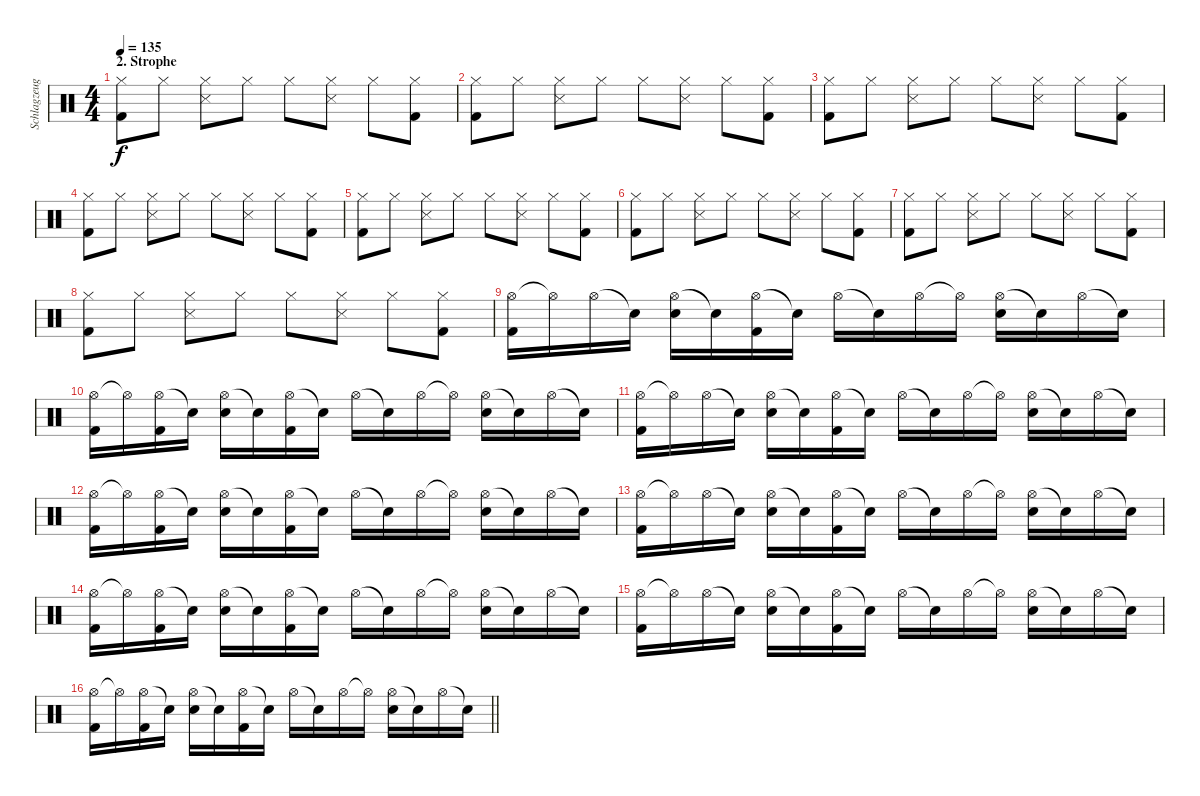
\track ("Schlagzeug" "Schlagzeug") {instrument percussion}
\staff {score}
\articulation defaults
\ts (4 4)
\section ("" "2. Strophe")
\tempo 135
\clef neutral
\ks c
("Hi-Hat (closed)" "Kick (hit) 2").8{dy f} "Hi-Hat (closed)".8 ("Hi-Hat (closed)" "Snare (side stick) 3").8 "Hi-Hat (closed)".8 "Hi-Hat (closed)".8 ("Hi-Hat (closed)" "Snare (side stick) 3").8 "Hi-Hat (closed)".8 ("Hi-Hat (closed)" "Kick (hit) 2").8 |
("Hi-Hat (closed)" "Kick (hit) 2").8 "Hi-Hat (closed)".8 ("Hi-Hat (closed)" "Snare (side stick) 3").8 "Hi-Hat (closed)".8 "Hi-Hat (closed)".8 ("Hi-Hat (closed)" "Snare (side stick) 3").8 "Hi-Hat (closed)".8 ("Hi-Hat (closed)" "Kick (hit) 2").8 |
("Hi-Hat (closed)" "Kick (hit) 2").8 "Hi-Hat (closed)".8 ("Hi-Hat (closed)" "Snare (side stick) 3").8 "Hi-Hat (closed)".8 "Hi-Hat (closed)".8 ("Hi-Hat (closed)" "Snare (side stick) 3").8 "Hi-Hat (closed)".8 ("Hi-Hat (closed)" "Kick (hit) 2").8 |
("Hi-Hat (closed)" "Kick (hit) 2").8 "Hi-Hat (closed)".8 ("Hi-Hat (closed)" "Snare (side stick) 3").8 "Hi-Hat (closed)".8 "Hi-Hat (closed)".8 ("Hi-Hat (closed)" "Snare (side stick) 3").8 "Hi-Hat (closed)".8 ("Hi-Hat (closed)" "Kick (hit) 2").8 |
("Hi-Hat (closed)" "Kick (hit) 2").8 "Hi-Hat (closed)".8 ("Hi-Hat (closed)" "Snare (side stick) 3").8 "Hi-Hat (closed)".8 "Hi-Hat (closed)".8 ("Hi-Hat (closed)" "Snare (side stick) 3").8 "Hi-Hat (closed)".8 ("Hi-Hat (closed)" "Kick (hit) 2").8 |
("Hi-Hat (closed)" "Kick (hit) 2").8 "Hi-Hat (closed)".8 ("Hi-Hat (closed)" "Snare (side stick) 3").8 "Hi-Hat (closed)".8 "Hi-Hat (closed)".8 ("Hi-Hat (closed)" "Snare (side stick) 3").8 "Hi-Hat (closed)".8 ("Hi-Hat (closed)" "Kick (hit) 2").8 |
("Hi-Hat (closed)" "Kick (hit) 2").8 "Hi-Hat (closed)".8 ("Hi-Hat (closed)" "Snare (side stick) 3").8 "Hi-Hat (closed)".8 "Hi-Hat (closed)".8 ("Hi-Hat (closed)" "Snare (side stick) 3").8 "Hi-Hat (closed)".8 ("Hi-Hat (closed)" "Kick (hit) 2").8 |
("Hi-Hat (closed)" "Kick (hit) 2").8 "Hi-Hat (closed)".8 ("Hi-Hat (closed)" "Snare (side stick) 3").8 "Hi-Hat (closed)".8 "Hi-Hat (closed)".8 ("Hi-Hat (closed)" "Snare (side stick) 3").8 "Hi-Hat (closed)".8 ("Hi-Hat (closed)" "Kick (hit) 2").8 |
("Hi-Hat (open)" "Kick (hit) 2").16 "Hi-Hat (open)"{t}.16 "Hi-Hat (open)".16 "Snare (hit)"{t}.16 ("Hi-Hat (open)" "Snare (hit) 2").16 "Snare (hit)"{t}.16 ("Hi-Hat (open)" "Kick (hit) 2").16 "Snare (hit)"{t}.16 "Hi-Hat (open)".16 "Snare (hit)"{t}.16 "Hi-Hat (open)".16 "Hi-Hat (open)"{t}.16 ("Hi-Hat (open)" "Snare (hit) 2").16 "Snare (hit)"{t}.16 "Hi-Hat (open)".16 "Snare (hit)"{t}.16 |
("Hi-Hat (open)" "Kick (hit) 2").16 "Hi-Hat (open)"{t}.16 ("Hi-Hat (open)" "Kick (hit) 2").16 "Snare (hit)"{t}.16 ("Hi-Hat (open)" "Snare (hit) 2").16 "Snare (hit)"{t}.16 ("Hi-Hat (open)" "Kick (hit) 2").16 "Snare (hit)"{t}.16 "Hi-Hat (open)".16 "Snare (hit)"{t}.16 "Hi-Hat (open)".16 "Hi-Hat (open)"{t}.16 ("Hi-Hat (open)" "Snare (hit) 2").16 "Snare (hit)"{t}.16 "Hi-Hat (open)".16 "Snare (hit)"{t}.16 |
("Hi-Hat (open)" "Kick (hit) 2").16 "Hi-Hat (open)"{t}.16 "Hi-Hat (open)".16 "Snare (hit)"{t}.16 ("Hi-Hat (open)" "Snare (hit) 2").16 "Snare (hit)"{t}.16 ("Hi-Hat (open)" "Kick (hit) 2").16 "Snare (hit)"{t}.16 "Hi-Hat (open)".16 "Snare (hit)"{t}.16 "Hi-Hat (open)".16 "Hi-Hat (open)"{t}.16 ("Hi-Hat (open)" "Snare (hit) 2").16 "Snare (hit)"{t}.16 "Hi-Hat (open)".16 "Snare (hit)"{t}.16 |
("Hi-Hat (open)" "Kick (hit) 2").16 "Hi-Hat (open)"{t}.16 ("Hi-Hat (open)" "Kick (hit) 2").16 "Snare (hit)"{t}.16 ("Hi-Hat (open)" "Snare (hit) 2").16 "Snare (hit)"{t}.16 ("Hi-Hat (open)" "Kick (hit) 2").16 "Snare (hit)"{t}.16 "Hi-Hat (open)".16 "Snare (hit)"{t}.16 "Hi-Hat (open)".16 "Hi-Hat (open)"{t}.16 ("Hi-Hat (open)" "Snare (hit) 2").16 "Snare (hit)"{t}.16 "Hi-Hat (open)".16 "Snare (hit)"{t}.16 |
("Hi-Hat (open)" "Kick (hit) 2").16 "Hi-Hat (open)"{t}.16 "Hi-Hat (open)".16 "Snare (hit)"{t}.16 ("Hi-Hat (open)" "Snare (hit) 2").16 "Snare (hit)"{t}.16 ("Hi-Hat (open)" "Kick (hit) 2").16 "Snare (hit)"{t}.16 "Hi-Hat (open)".16 "Snare (hit)"{t}.16 "Hi-Hat (open)".16 "Hi-Hat (open)"{t}.16 ("Hi-Hat (open)" "Snare (hit) 2").16 "Snare (hit)"{t}.16 "Hi-Hat (open)".16 "Snare (hit)"{t}.16 |
("Hi-Hat (open)" "Kick (hit) 2").16 "Hi-Hat (open)"{t}.16 ("Hi-Hat (open)" "Kick (hit) 2").16 "Snare (hit)"{t}.16 ("Hi-Hat (open)" "Snare (hit) 2").16 "Snare (hit)"{t}.16 ("Hi-Hat (open)" "Kick (hit) 2").16 "Snare (hit)"{t}.16 "Hi-Hat (open)".16 "Snare (hit)"{t}.16 "Hi-Hat (open)".16 "Hi-Hat (open)"{t}.16 ("Hi-Hat (open)" "Snare (hit) 2").16 "Snare (hit)"{t}.16 "Hi-Hat (open)".16 "Snare (hit)"{t}.16 |
("Hi-Hat (open)" "Kick (hit) 2").16 "Hi-Hat (open)"{t}.16 "Hi-Hat (open)".16 "Snare (hit)"{t}.16 ("Hi-Hat (open)" "Snare (hit) 2").16 "Snare (hit)"{t}.16 ("Hi-Hat (open)" "Kick (hit) 2").16 "Snare (hit)"{t}.16 "Hi-Hat (open)".16 "Snare (hit)"{t}.16 "Hi-Hat (open)".16 "Hi-Hat (open)"{t}.16 ("Hi-Hat (open)" "Snare (hit) 2").16 "Snare (hit)"{t}.16 "Hi-Hat (open)".16 "Snare (hit)"{t}.16 |
\barLineRight lightlight
("Hi-Hat (open)" "Kick (hit) 2").16 "Hi-Hat (open)"{t}.16 ("Hi-Hat (open)" "Kick (hit) 2").16 "Snare (hit)"{t}.16 ("Hi-Hat (open)" "Snare (hit) 2").16 "Snare (hit)"{t}.16 ("Hi-Hat (open)" "Kick (hit) 2").16 "Snare (hit)"{t}.16 "Hi-Hat (open)".16 "Snare (hit)"{t}.16 "Hi-Hat (open)".16 "Hi-Hat (open)"{t}.16 ("Hi-Hat (open)" "Snare (hit) 2").16 "Snare (hit)"{t}.16 "Hi-Hat (open)".16 "Snare (hit)"{t}.16
